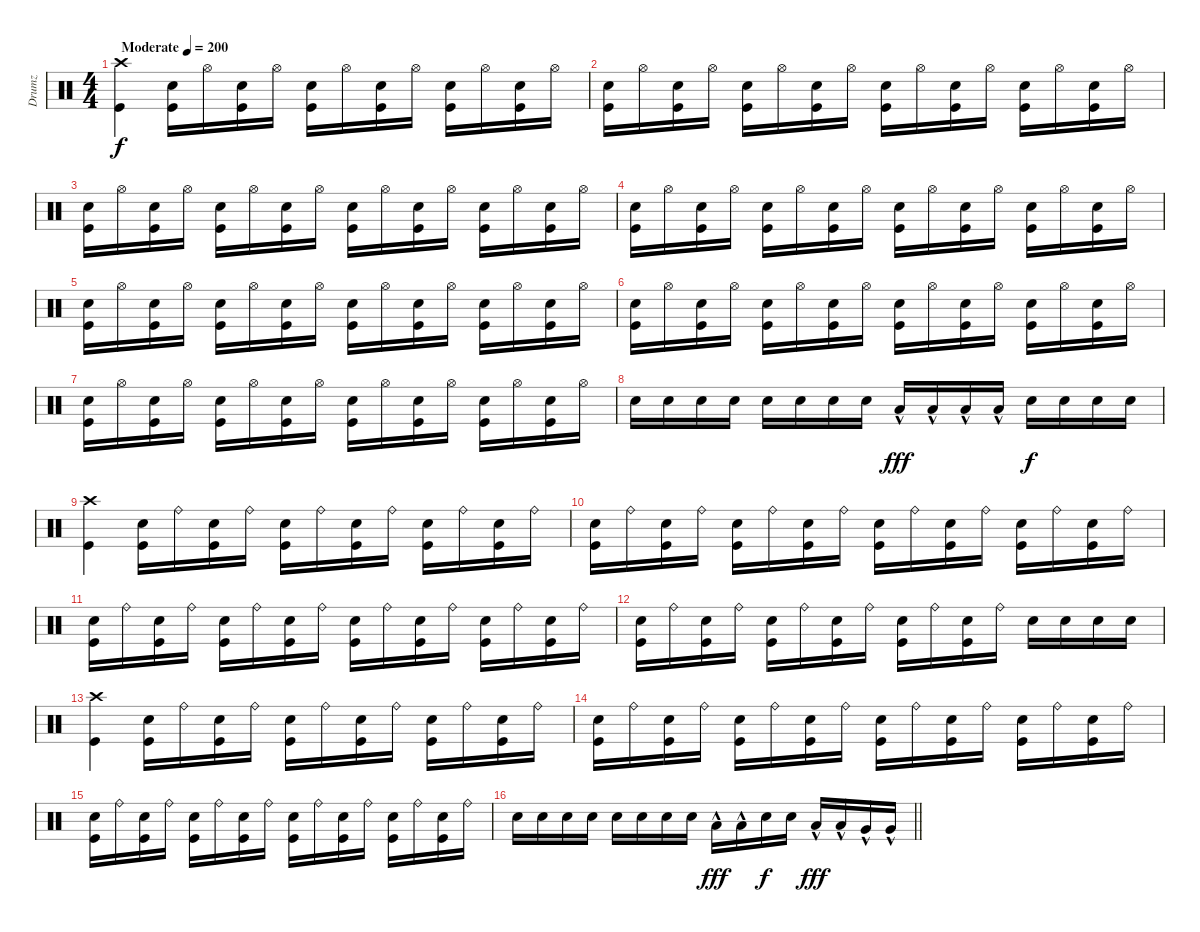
\track ("Drumz" "Drumz") {instrument percussion}
\staff {score}
\articulation defaults
\ts (4 4)
\tempo (200 "Moderate")
\clef neutral
\ks c
("Crash high (hit)" "Kick (hit)").4{dy f} ("Electric Snare (hit)" "Kick (hit)").16 "Hi-Hat (open)".16 ("Electric Snare (hit)" "Kick (hit)").16 "Hi-Hat (open)".16 ("Electric Snare (hit)" "Kick (hit)").16 "Hi-Hat (open)".16 ("Electric Snare (hit)" "Kick (hit)").16 "Hi-Hat (open)".16 ("Electric Snare (hit)" "Kick (hit)").16 "Hi-Hat (open)".16 ("Electric Snare (hit)" "Kick (hit)").16 "Hi-Hat (open)".16 |
("Electric Snare (hit)" "Kick (hit)").16 "Hi-Hat (open)".16 ("Electric Snare (hit)" "Kick (hit)").16 "Hi-Hat (open)".16 ("Electric Snare (hit)" "Kick (hit)").16 "Hi-Hat (open)".16 ("Electric Snare (hit)" "Kick (hit)").16 "Hi-Hat (open)".16 ("Electric Snare (hit)" "Kick (hit)").16 "Hi-Hat (open)".16 ("Electric Snare (hit)" "Kick (hit)").16 "Hi-Hat (open)".16 ("Electric Snare (hit)" "Kick (hit)").16 "Hi-Hat (open)".16 ("Electric Snare (hit)" "Kick (hit)").16 "Hi-Hat (open)".16 |
("Electric Snare (hit)" "Kick (hit)").16 "Hi-Hat (open)".16 ("Electric Snare (hit)" "Kick (hit)").16 "Hi-Hat (open)".16 ("Electric Snare (hit)" "Kick (hit)").16 "Hi-Hat (open)".16 ("Electric Snare (hit)" "Kick (hit)").16 "Hi-Hat (open)".16 ("Electric Snare (hit)" "Kick (hit)").16 "Hi-Hat (open)".16 ("Electric Snare (hit)" "Kick (hit)").16 "Hi-Hat (open)".16 ("Electric Snare (hit)" "Kick (hit)").16 "Hi-Hat (open)".16 ("Electric Snare (hit)" "Kick (hit)").16 "Hi-Hat (open)".16 |
("Electric Snare (hit)" "Kick (hit)").16 "Hi-Hat (open)".16 ("Electric Snare (hit)" "Kick (hit)").16 "Hi-Hat (open)".16 ("Electric Snare (hit)" "Kick (hit)").16 "Hi-Hat (open)".16 ("Electric Snare (hit)" "Kick (hit)").16 "Hi-Hat (open)".16 ("Electric Snare (hit)" "Kick (hit)").16 "Hi-Hat (open)".16 ("Electric Snare (hit)" "Kick (hit)").16 "Hi-Hat (open)".16 ("Electric Snare (hit)" "Kick (hit)").16 "Hi-Hat (open)".16 ("Electric Snare (hit)" "Kick (hit)").16 "Hi-Hat (open)".16 |
("Electric Snare (hit)" "Kick (hit)").16 "Hi-Hat (open)".16 ("Electric Snare (hit)" "Kick (hit)").16 "Hi-Hat (open)".16 ("Electric Snare (hit)" "Kick (hit)").16 "Hi-Hat (open)".16 ("Electric Snare (hit)" "Kick (hit)").16 "Hi-Hat (open)".16 ("Electric Snare (hit)" "Kick (hit)").16 "Hi-Hat (open)".16 ("Electric Snare (hit)" "Kick (hit)").16 "Hi-Hat (open)".16 ("Electric Snare (hit)" "Kick (hit)").16 "Hi-Hat (open)".16 ("Electric Snare (hit)" "Kick (hit)").16 "Hi-Hat (open)".16 |
("Electric Snare (hit)" "Kick (hit)").16 "Hi-Hat (open)".16 ("Electric Snare (hit)" "Kick (hit)").16 "Hi-Hat (open)".16 ("Electric Snare (hit)" "Kick (hit)").16 "Hi-Hat (open)".16 ("Electric Snare (hit)" "Kick (hit)").16 "Hi-Hat (open)".16 ("Electric Snare (hit)" "Kick (hit)").16 "Hi-Hat (open)".16 ("Electric Snare (hit)" "Kick (hit)").16 "Hi-Hat (open)".16 ("Electric Snare (hit)" "Kick (hit)").16 "Hi-Hat (open)".16 ("Electric Snare (hit)" "Kick (hit)").16 "Hi-Hat (open)".16 |
("Electric Snare (hit)" "Kick (hit)").16 "Hi-Hat (open)".16 ("Electric Snare (hit)" "Kick (hit)").16 "Hi-Hat (open)".16 ("Electric Snare (hit)" "Kick (hit)").16 "Hi-Hat (open)".16 ("Electric Snare (hit)" "Kick (hit)").16 "Hi-Hat (open)".16 ("Electric Snare (hit)" "Kick (hit)").16 "Hi-Hat (open)".16 ("Electric Snare (hit)" "Kick (hit)").16 "Hi-Hat (open)".16 ("Electric Snare (hit)" "Kick (hit)").16 "Hi-Hat (open)".16 ("Electric Snare (hit)" "Kick (hit)").16 "Hi-Hat (open)".16 |
"Electric Snare (hit)".16 "Electric Snare (hit)".16 "Electric Snare (hit)".16 "Electric Snare (hit)".16 "Electric Snare (hit)".16 "Electric Snare (hit)".16 "Electric Snare (hit)".16 "Electric Snare (hit)".16 "Low Tom (hit)"{hac}.16{dy fff} "Low Tom (hit)"{hac}.16 "Low Tom (hit)"{hac}.16 "Low Tom (hit)"{hac}.16 "Electric Snare (hit)".16{dy f} "Electric Snare (hit)".16 "Electric Snare (hit)".16 "Electric Snare (hit)".16 |
("Crash high (hit)" "Kick (hit)").4 ("Electric Snare (hit)" "Kick (hit)").16 "Ride (bell)".16 ("Electric Snare (hit)" "Kick (hit)").16 "Ride (bell)".16 ("Electric Snare (hit)" "Kick (hit)").16 "Ride (bell)".16 ("Electric Snare (hit)" "Kick (hit)").16 "Ride (bell)".16 ("Electric Snare (hit)" "Kick (hit)").16 "Ride (bell)".16 ("Electric Snare (hit)" "Kick (hit)").16 "Ride (bell)".16 |
("Electric Snare (hit)" "Kick (hit)").16 "Ride (bell)".16 ("Electric Snare (hit)" "Kick (hit)").16 "Ride (bell)".16 ("Electric Snare (hit)" "Kick (hit)").16 "Ride (bell)".16 ("Electric Snare (hit)" "Kick (hit)").16 "Ride (bell)".16 ("Electric Snare (hit)" "Kick (hit)").16 "Ride (bell)".16 ("Electric Snare (hit)" "Kick (hit)").16 "Ride (bell)".16 ("Electric Snare (hit)" "Kick (hit)").16 "Ride (bell)".16 ("Electric Snare (hit)" "Kick (hit)").16 "Ride (bell)".16 |
("Electric Snare (hit)" "Kick (hit)").16 "Ride (bell)".16 ("Electric Snare (hit)" "Kick (hit)").16 "Ride (bell)".16 ("Electric Snare (hit)" "Kick (hit)").16 "Ride (bell)".16 ("Electric Snare (hit)" "Kick (hit)").16 "Ride (bell)".16 ("Electric Snare (hit)" "Kick (hit)").16 "Ride (bell)".16 ("Electric Snare (hit)" "Kick (hit)").16 "Ride (bell)".16 ("Electric Snare (hit)" "Kick (hit)").16 "Ride (bell)".16 ("Electric Snare (hit)" "Kick (hit)").16 "Ride (bell)".16 |
("Electric Snare (hit)" "Kick (hit)").16 "Ride (bell)".16 ("Electric Snare (hit)" "Kick (hit)").16 "Ride (bell)".16 ("Electric Snare (hit)" "Kick (hit)").16 "Ride (bell)".16 ("Electric Snare (hit)" "Kick (hit)").16 "Ride (bell)".16 ("Electric Snare (hit)" "Kick (hit)").16 "Ride (bell)".16 ("Electric Snare (hit)" "Kick (hit)").16 "Ride (bell)".16 "Electric Snare (hit)".16 "Electric Snare (hit)".16 "Electric Snare (hit)".16 "Electric Snare (hit)".16 |
("Crash high (hit)" "Kick (hit)").4 ("Electric Snare (hit)" "Kick (hit)").16 "Ride (bell)".16 ("Electric Snare (hit)" "Kick (hit)").16 "Ride (bell)".16 ("Electric Snare (hit)" "Kick (hit)").16 "Ride (bell)".16 ("Electric Snare (hit)" "Kick (hit)").16 "Ride (bell)".16 ("Electric Snare (hit)" "Kick (hit)").16 "Ride (bell)".16 ("Electric Snare (hit)" "Kick (hit)").16 "Ride (bell)".16 |
("Electric Snare (hit)" "Kick (hit)").16 "Ride (bell)".16 ("Electric Snare (hit)" "Kick (hit)").16 "Ride (bell)".16 ("Electric Snare (hit)" "Kick (hit)").16 "Ride (bell)".16 ("Electric Snare (hit)" "Kick (hit)").16 "Ride (bell)".16 ("Electric Snare (hit)" "Kick (hit)").16 "Ride (bell)".16 ("Electric Snare (hit)" "Kick (hit)").16 "Ride (bell)".16 ("Electric Snare (hit)" "Kick (hit)").16 "Ride (bell)".16 ("Electric Snare (hit)" "Kick (hit)").16 "Ride (bell)".16 |
("Electric Snare (hit)" "Kick (hit)").16 "Ride (bell)".16 ("Electric Snare (hit)" "Kick (hit)").16 "Ride (bell)".16 ("Electric Snare (hit)" "Kick (hit)").16 "Ride (bell)".16 ("Electric Snare (hit)" "Kick (hit)").16 "Ride (bell)".16 ("Electric Snare (hit)" "Kick (hit)").16 "Ride (bell)".16 ("Electric Snare (hit)" "Kick (hit)").16 "Ride (bell)".16 ("Electric Snare (hit)" "Kick (hit)").16 "Ride (bell)".16 ("Electric Snare (hit)" "Kick (hit)").16 "Ride (bell)".16 |
\barLineRight lightlight "Electric Snare (hit)".16 "Electric Snare (hit)".16 "Electric Snare (hit)".16 "Electric Snare (hit)".16 "Electric Snare (hit)".16 "Electric Snare (hit)".16 "Electric Snare (hit)".16 "Electric Snare (hit)".16 "Low Tom (hit)"{hac}.16{dy fff} "Low Tom (hit)"{hac}.16 "Electric Snare (hit)".16{dy f} "Electric Snare (hit)".16 "Low Tom (hit)"{hac}.16{dy fff} "Low Tom (hit)"{hac}.16 "Very Low Tom (hit)"{hac}.16 "Very Low Tom (hit)"{hac}.16
